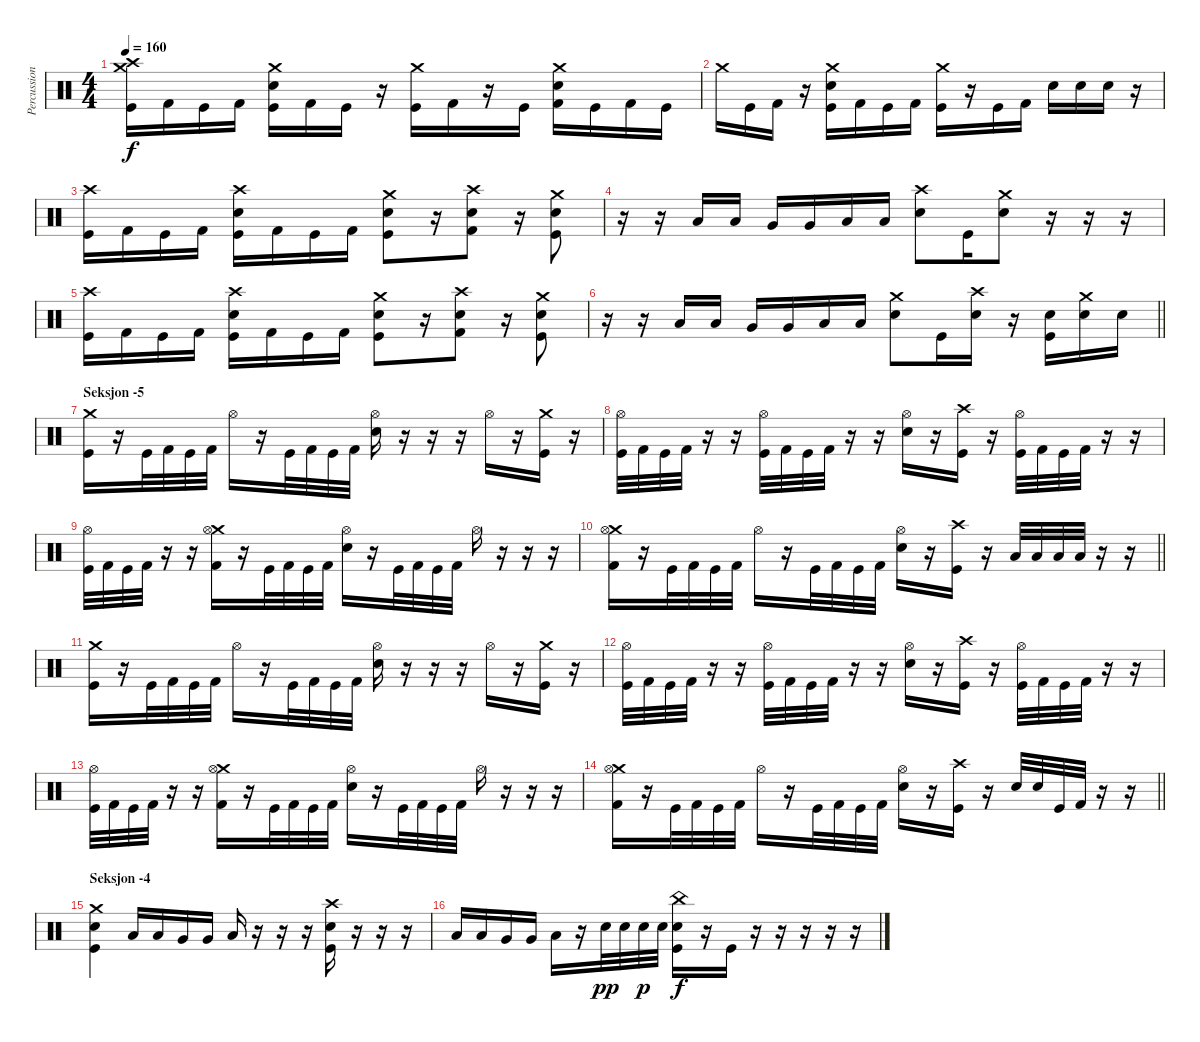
\track ("Percussion" "Percussion") {instrument percussion}
\staff {score}
\articulation defaults
\ts (4 4)
\tempo 160
\clef neutral
\ks c
("Crash high (hit)" "Crash medium (hit)" "Kick (hit)").16{dy f} "Kick (hit) 2".16 "Kick (hit)".16 "Kick (hit) 2".16 ("Crash medium (hit)" "Snare (hit) 2" "Kick (hit)").16 "Kick (hit) 2".16 "Kick (hit)".16 r.16 ("Crash medium (hit)" "Kick (hit)").16 "Kick (hit) 2".16 r.16 "Kick (hit)".16 ("Crash medium (hit)" "Snare (hit) 2" "Kick (hit) 2").16 "Kick (hit)".16 "Kick (hit) 2".16 "Kick (hit)".16 |
"Crash medium (hit)".16 "Kick (hit)".16 "Kick (hit) 2".16 r.16 ("Crash medium (hit)" "Snare (hit) 2" "Kick (hit)").16 "Kick (hit) 2".16 "Kick (hit)".16 "Kick (hit) 2".16 ("Crash medium (hit)" "Kick (hit)").16 r.16 "Kick (hit)".16 "Kick (hit) 2".16 "Snare (hit) 2".16 "Snare (hit) 2".16 "Snare (hit) 2".16 r.16 |
("Crash high (hit)" "Kick (hit)").16 "Kick (hit) 2".16 "Kick (hit)".16 "Kick (hit) 2".16 ("Crash high (hit)" "Snare (hit) 2" "Kick (hit)").16 "Kick (hit) 2".16 "Kick (hit)".16 "Kick (hit) 2".16 ("Crash medium (hit)" "Snare (hit) 2" "Kick (hit)").8 r.16 ("Crash high (hit)" "Snare (hit) 2" "Kick (hit) 2").8 r.16 ("Crash medium (hit)" "Snare (hit) 2" "Kick (hit)").8 |
r.16 r.16 "Low Tom (hit)".16 "Low Tom (hit)".16 "Very Low Tom (hit)".16 "Very Low Tom (hit)".16 "Low Floor Tom (hit)".16 "Low Floor Tom (hit)".16 ("Crash high (hit)" "Snare (hit) 2").8 "Kick (hit)".16 ("Crash medium (hit)" "Snare (hit) 2").8 r.16 r.16 r.16 |
("Crash high (hit)" "Kick (hit)").16 "Kick (hit) 2".16 "Kick (hit)".16 "Kick (hit) 2".16 ("Crash high (hit)" "Snare (hit) 2" "Kick (hit)").16 "Kick (hit) 2".16 "Kick (hit)".16 "Kick (hit) 2".16 ("Crash medium (hit)" "Snare (hit) 2" "Kick (hit)").8 r.16 ("Crash high (hit)" "Snare (hit) 2" "Kick (hit) 2").8 r.16 ("Crash medium (hit)" "Snare (hit) 2" "Kick (hit)").8 |
\barLineRight lightlight
r.16 r.16 "Low Tom (hit)".16 "Low Tom (hit)".16 "Very Low Tom (hit)".16 "Very Low Tom (hit)".16 "Low Floor Tom (hit)".16 "Low Floor Tom (hit)".16 ("Crash medium (hit)" "Snare (hit) 2").8 "Kick (hit)".16 ("Crash high (hit)" "Snare (hit) 2").16 r.16 ("Snare (hit) 2" "Kick (hit)").16 ("Crash medium (hit)" "Snare (hit) 2").16 "Snare (hit) 2".16 |
\section ("" "Seksjon -5")
("Crash medium (hit)" "Kick (hit)").16 r.16 "Kick (hit)".32 "Kick (hit) 2".32 "Kick (hit)".32 "Kick (hit) 2".32 "Hi-Hat (open)".16 r.16 "Kick (hit)".32 "Kick (hit) 2".32 "Kick (hit)".32 "Kick (hit) 2".32 ("Hi-Hat (open)" "Snare (hit) 2").16 r.16 r.16 r.16 "Hi-Hat (open)".16 r.16 ("Crash medium (hit)" "Kick (hit)").16 r.16 |
("Hi-Hat (open)" "Kick (hit)").32 "Kick (hit) 2".32 "Kick (hit)".32 "Kick (hit) 2".32 r.16 r.16 ("Hi-Hat (open)" "Kick (hit)").32 "Kick (hit) 2".32 "Kick (hit)".32 "Kick (hit) 2".32 r.16 r.16 ("Hi-Hat (open)" "Snare (hit) 2").16 r.16 ("Crash high (hit)" "Kick (hit)").16 r.16 ("Hi-Hat (open)" "Kick (hit)").32 "Kick (hit) 2".32 "Kick (hit)".32 "Kick (hit) 2".32 r.16 r.16 |
("Hi-Hat (open)" "Kick (hit)").32 "Kick (hit) 2".32 "Kick (hit)".32 "Kick (hit) 2".32 r.16 r.16 ("Crash medium (hit)" "Hi-Hat (open)" "Kick (hit) 2").16 r.16 "Kick (hit)".32 "Kick (hit) 2".32 "Kick (hit)".32 "Kick (hit) 2".32 ("Hi-Hat (open)" "Snare (hit) 2").16 r.16 "Kick (hit)".32 "Kick (hit) 2".32 "Kick (hit)".32 "Kick (hit) 2".32 "Hi-Hat (open)".16 r.16 r.16 r.16 |
\barLineRight lightlight
("Crash medium (hit)" "Hi-Hat (open)" "Kick (hit) 2").16 r.16 "Kick (hit)".32 "Kick (hit) 2".32 "Kick (hit)".32 "Kick (hit) 2".32 "Hi-Hat (open)".16 r.16 "Kick (hit)".32 "Kick (hit) 2".32 "Kick (hit)".32 "Kick (hit) 2".32 ("Hi-Hat (open)" "Snare (hit) 2").16 r.16 ("Crash high (hit)" "Kick (hit)").16 r.16 "Low Floor Tom (hit)".32 "Low Floor Tom (hit)".32 "Low Floor Tom (hit)".32 "Low Floor Tom (hit)".32 r.16 r.16 |
("Crash medium (hit)" "Kick (hit)").16 r.16 "Kick (hit)".32 "Kick (hit) 2".32 "Kick (hit)".32 "Kick (hit) 2".32 "Hi-Hat (open)".16 r.16 "Kick (hit)".32 "Kick (hit) 2".32 "Kick (hit)".32 "Kick (hit) 2".32 ("Hi-Hat (open)" "Snare (hit) 2").16 r.16 r.16 r.16 "Hi-Hat (open)".16 r.16 ("Crash medium (hit)" "Kick (hit)").16 r.16 |
("Hi-Hat (open)" "Kick (hit)").32 "Kick (hit) 2".32 "Kick (hit)".32 "Kick (hit) 2".32 r.16 r.16 ("Hi-Hat (open)" "Kick (hit)").32 "Kick (hit) 2".32 "Kick (hit)".32 "Kick (hit) 2".32 r.16 r.16 ("Hi-Hat (open)" "Snare (hit) 2").16 r.16 ("Crash high (hit)" "Kick (hit)").16 r.16 ("Hi-Hat (open)" "Kick (hit)").32 "Kick (hit) 2".32 "Kick (hit)".32 "Kick (hit) 2".32 r.16 r.16 |
("Hi-Hat (open)" "Kick (hit)").32 "Kick (hit) 2".32 "Kick (hit)".32 "Kick (hit) 2".32 r.16 r.16 ("Crash medium (hit)" "Hi-Hat (open)" "Kick (hit) 2").16 r.16 "Kick (hit)".32 "Kick (hit) 2".32 "Kick (hit)".32 "Kick (hit) 2".32 ("Hi-Hat (open)" "Snare (hit) 2").16 r.16 "Kick (hit)".32 "Kick (hit) 2".32 "Kick (hit)".32 "Kick (hit) 2".32 "Hi-Hat (open)".16 r.16 r.16 r.16 |
\barLineRight lightlight
("Crash medium (hit)" "Hi-Hat (open)" "Kick (hit) 2").16 r.16 "Kick (hit)".32 "Kick (hit) 2".32 "Kick (hit)".32 "Kick (hit) 2".32 "Hi-Hat (open)".16 r.16 "Kick (hit)".32 "Kick (hit) 2".32 "Kick (hit)".32 "Kick (hit) 2".32 ("Hi-Hat (open)" "Snare (hit) 2").16 r.16 ("Crash high (hit)" "Kick (hit)").16 r.16 "Snare (hit) 2".32 "Snare (hit) 2".32 "Kick (hit)".32 "Kick (hit) 2".32 r.16 r.16 |
\section ("" "Seksjon -4")
("Crash medium (hit)" "Snare (hit) 2" "Kick (hit)").4 "Low Tom (hit)".16 "Low Tom (hit)".16 "Very Low Tom (hit)".16 "Very Low Tom (hit)".16 "Low Floor Tom (hit)".16 r.16 r.16 r.16 ("Crash high (hit)" "Snare (hit) 2" "Kick (hit)").16 r.16 r.16 r.16 |
"Low Tom (hit)".16 "Low Tom (hit)".16 "Very Low Tom (hit)".16 "Very Low Tom (hit)".16 "Low Floor Tom (hit)".16 r.16 "Snare (hit) 2".32{dy pp} "Snare (hit) 2".32 "Snare (hit) 2".32{dy p} "Snare (hit) 2".32 ("China (hit)" "Snare (hit) 2" "Kick (hit)").16{dy f} r.16 "Kick (hit)".16 r.16 r.16 r.16 r.16 r.16
